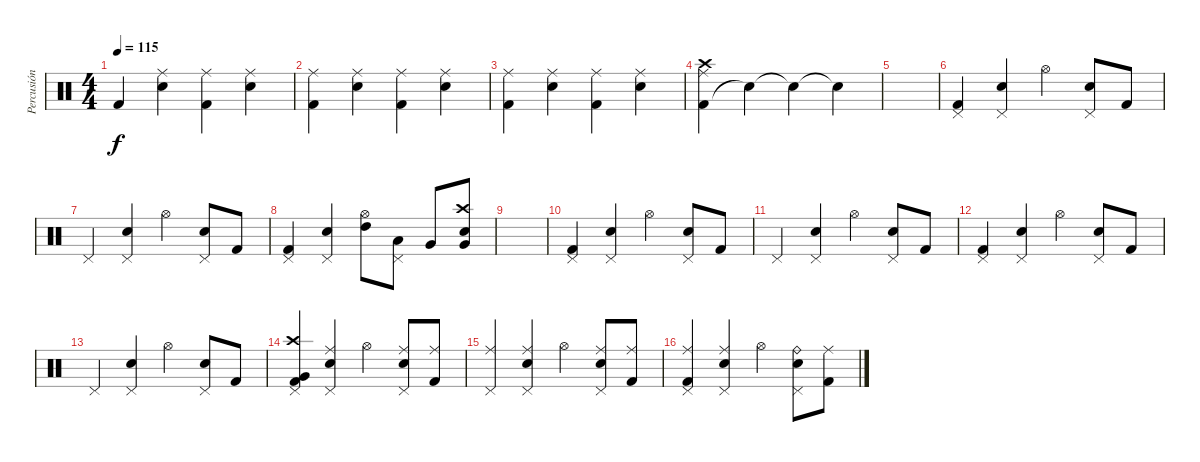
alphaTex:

\track ("Percusión" "Percusión") {instrument percussion}
\staff {score}
\articulation defaults
\ts (4 4)
\tempo 115
\clef neutral
\ks c "Kick (hit) 2".4{dy f}
("Snare (hit) 2" "Ride (middle)").4 ("Kick (hit) 2" "Ride (middle)").4 ("Snare (hit) 2" "Ride (middle)").4 |
("Kick (hit) 2" "Ride (middle)").4 ("Snare (hit) 2" "Ride (middle)").4 ("Kick (hit) 2" "Ride (middle)").4 ("Snare (hit) 2" "Ride (middle)").4 |
("Kick (hit) 2" "Ride (middle)").4 ("Snare (hit) 2" "Ride (middle)").4 ("Kick (hit) 2" "Ride (middle)").4 ("Snare (hit) 2" "Ride (middle)").4 |
("Kick (hit) 2" "Ride (middle)" "Crash high (hit)").4 "Snare (hit)"{t}.4 "Snare (hit)"{t}.4 "Snare (hit)"{t}.4 |
|
("Kick (hit) 2" "Pedal Hi-Hat (hit)").4 ("Snare (hit) 2" "Pedal Hi-Hat (hit)").4 "Hi-Hat (open)".4 ("Snare (hit) 2" "Pedal Hi-Hat (hit)").8 "Kick (hit) 2".8 |
"Pedal Hi-Hat (hit)".4 ("Snare (hit) 2" "Pedal Hi-Hat (hit)").4 "Hi-Hat (open)".4 ("Snare (hit) 2" "Pedal Hi-Hat (hit)").8 "Kick (hit) 2".8 |
("Kick (hit) 2" "Pedal Hi-Hat (hit)").4 ("Snare (hit) 2" "Pedal Hi-Hat (hit)").4 ("High Tom (hit)" "Hi-Hat (open)").8 ("Low Tom (hit)" "Pedal Hi-Hat (hit)").8 "Very Low Tom (hit)".8 ("Crash high (hit)" "Very Low Tom (hit)" "Snare (hit) 2").8 |
|
("Kick (hit) 2" "Pedal Hi-Hat (hit)").4 ("Snare (hit) 2" "Pedal Hi-Hat (hit)").4 "Hi-Hat (open)".4 ("Snare (hit) 2" "Pedal Hi-Hat (hit)").8 "Kick (hit) 2".8 |
"Pedal Hi-Hat (hit)".4 ("Snare (hit) 2" "Pedal Hi-Hat (hit)").4 "Hi-Hat (open)".4 ("Snare (hit) 2" "Pedal Hi-Hat (hit)").8 "Kick (hit) 2".8 |
("Kick (hit) 2" "Pedal Hi-Hat (hit)").4 ("Snare (hit) 2" "Pedal Hi-Hat (hit)").4 "Hi-Hat (open)".4 ("Snare (hit) 2" "Pedal Hi-Hat (hit)").8 "Kick (hit) 2".8 |
"Pedal Hi-Hat (hit)".4 ("Snare (hit) 2" "Pedal Hi-Hat (hit)").4 "Hi-Hat (open)".4 ("Snare (hit) 2" "Pedal Hi-Hat (hit)").8 "Kick (hit) 2".8 |
("Kick (hit) 2" "Very Low Tom (hit)" "Pedal Hi-Hat (hit)" "Crash high (hit)").4 ("Snare (hit) 2" "Pedal Hi-Hat (hit)" "Ride (middle)").4 "Hi-Hat (open)".4 ("Snare (hit) 2" "Pedal Hi-Hat (hit)" "Ride (middle)").8 ("Kick (hit) 2" "Ride (middle)").8 |
("Pedal Hi-Hat (hit)" "Ride (middle)").4 ("Snare (hit) 2" "Pedal Hi-Hat (hit)" "Ride (middle)").4 "Hi-Hat (open)".4 ("Snare (hit) 2" "Pedal Hi-Hat (hit)" "Ride (middle)").8 ("Kick (hit) 2" "Ride (middle)").8 |
("Kick (hit) 2" "Pedal Hi-Hat (hit)" "Ride (middle)").4 ("Snare (hit) 2" "Pedal Hi-Hat (hit)" "Ride (middle)").4 "Hi-Hat (open)".4 ("Snare (hit) 2" "Pedal Hi-Hat (hit)" "Ride (bell)").8 ("Kick (hit) 2" "Ride (middle)").8
